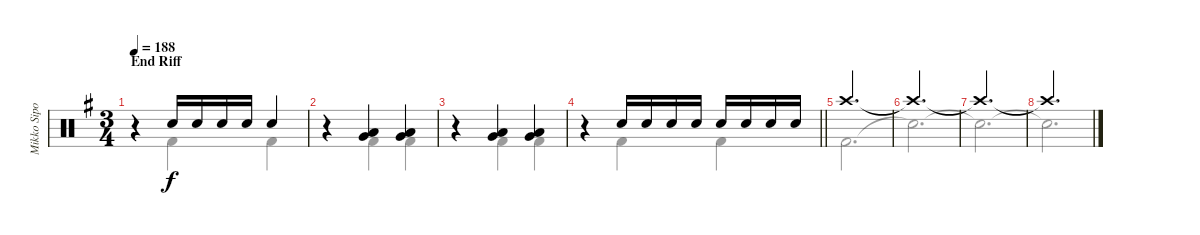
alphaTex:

\track ("Mikko Sipola (drums)" "Mikko Sipo") {instrument percussion}
\staff {score}
\articulation defaults
\voice
\ts (3 4)
\section ("" "End Riff")
\tempo 188
\clef neutral
\ks eminor
r.4{dy f} "Electric Snare (hit)".16 "Electric Snare (hit)".16 "Electric Snare (hit)".16 "Electric Snare (hit)".16 "Electric Snare (hit)".4 |
r.4 ("Low Tom (hit)" "Very Low Tom (hit)").4 ("Low Tom (hit)" "Very Low Tom (hit)").4 |
r.4 ("Low Tom (hit)" "Very Low Tom (hit)").4 ("Low Tom (hit)" "Very Low Tom (hit)").4 |
\barLineRight lightlight
r.4 "Electric Snare (hit)".16 "Electric Snare (hit)".16 "Electric Snare (hit)".16 "Electric Snare (hit)".16 "Electric Snare (hit)".16 "Electric Snare (hit)".16 "Electric Snare (hit)".16 "Electric Snare (hit)".16 |
"Crash high (hit)".2{d} |
"Crash high (hit)"{t}.2{d} |
"Crash high (hit)"{t}.2{d} |
"Crash high (hit)"{t}.2{d}
\voice
\clef neutral
\ottava regular
\simile none
\ks eminor
r.4{dy f} "Kick (hit) 2".4 "Kick (hit) 2".4 |
r.4 "Kick (hit) 2".4 "Kick (hit) 2".4 |
r.4 "Kick (hit) 2".4 "Kick (hit) 2".4 |
\barLineRight lightlight
r.4 "Kick (hit) 2".4 "Kick (hit) 2".4 |
"Kick (hit) 2".2{d} |
"Snare (hit)"{t}.2{d} |
"Snare (hit)"{t}.2{d} |
"Snare (hit)"{t}.2{d}
